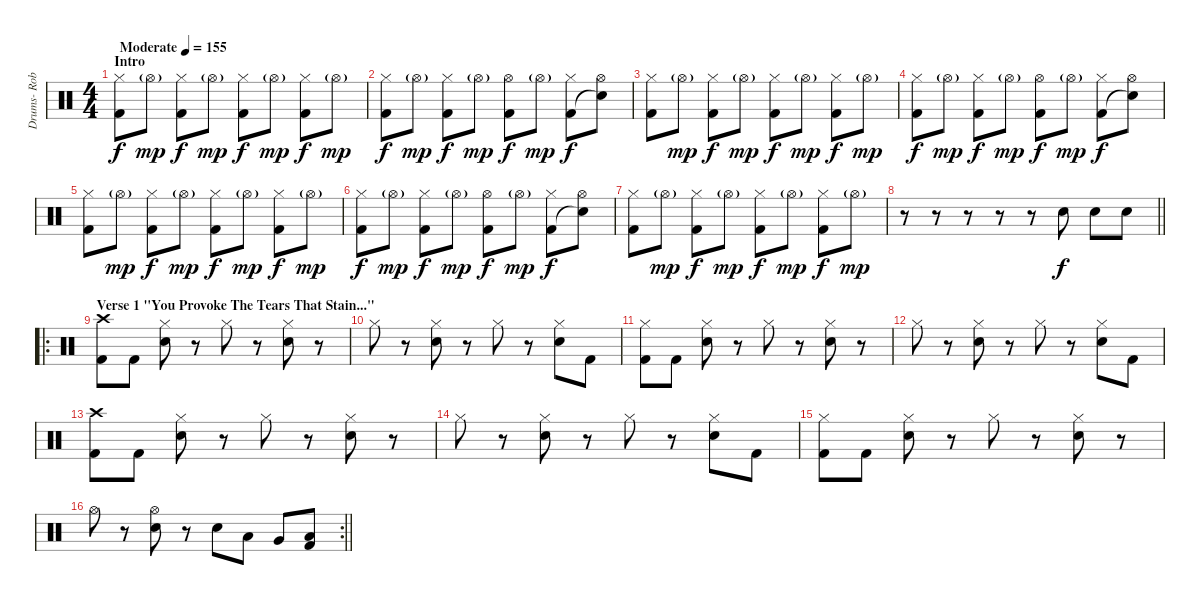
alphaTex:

\track ("Drums- Rob Rolfe" "Drums- Rob") {instrument percussion}
\staff {score}
\articulation defaults
\ts (4 4)
\section ("" "Intro")
\tempo (155 "Moderate")
\clef neutral
\ks c
("Hi-Hat (closed)" "Kick (hit) 2").8{dy f} "Hi-Hat (open)"{g}.8{dy mp} ("Hi-Hat (closed)" "Kick (hit) 2").8{dy f} "Hi-Hat (open)"{g}.8{dy mp} ("Hi-Hat (closed)" "Kick (hit) 2").8{dy f} "Hi-Hat (open)"{g}.8{dy mp} ("Hi-Hat (closed)" "Kick (hit) 2").8{dy f} "Hi-Hat (open)"{g}.8{dy mp} |
("Hi-Hat (closed)" "Kick (hit) 2").8{dy f} "Hi-Hat (open)"{g}.8{dy mp} ("Hi-Hat (closed)" "Kick (hit) 2").8{dy f} "Hi-Hat (open)"{g}.8{dy mp} ("Hi-Hat (open)" "Kick (hit) 2").8{dy f} "Hi-Hat (open)"{g}.8{dy mp} ("Hi-Hat (closed)" "Kick (hit) 2").8{dy f} ("Hi-Hat (open)" "Snare (hit)"{t}).8 |
("Hi-Hat (closed)" "Kick (hit) 2").8 "Hi-Hat (open)"{g}.8{dy mp} ("Hi-Hat (closed)" "Kick (hit) 2").8{dy f} "Hi-Hat (open)"{g}.8{dy mp} ("Hi-Hat (closed)" "Kick (hit) 2").8{dy f} "Hi-Hat (open)"{g}.8{dy mp} ("Hi-Hat (closed)" "Kick (hit) 2").8{dy f} "Hi-Hat (open)"{g}.8{dy mp} |
("Hi-Hat (closed)" "Kick (hit) 2").8{dy f} "Hi-Hat (open)"{g}.8{dy mp} ("Hi-Hat (closed)" "Kick (hit) 2").8{dy f} "Hi-Hat (open)"{g}.8{dy mp} ("Hi-Hat (open)" "Kick (hit) 2").8{dy f} "Hi-Hat (open)"{g}.8{dy mp} ("Hi-Hat (closed)" "Kick (hit) 2").8{dy f} ("Hi-Hat (open)" "Snare (hit)"{t}).8 |
("Hi-Hat (closed)" "Kick (hit) 2").8 "Hi-Hat (open)"{g}.8{dy mp} ("Hi-Hat (closed)" "Kick (hit) 2").8{dy f} "Hi-Hat (open)"{g}.8{dy mp} ("Hi-Hat (closed)" "Kick (hit) 2").8{dy f} "Hi-Hat (open)"{g}.8{dy mp} ("Hi-Hat (closed)" "Kick (hit) 2").8{dy f} "Hi-Hat (open)"{g}.8{dy mp} |
("Hi-Hat (closed)" "Kick (hit) 2").8{dy f} "Hi-Hat (open)"{g}.8{dy mp} ("Hi-Hat (closed)" "Kick (hit) 2").8{dy f} "Hi-Hat (open)"{g}.8{dy mp} ("Hi-Hat (open)" "Kick (hit) 2").8{dy f} "Hi-Hat (open)"{g}.8{dy mp} ("Hi-Hat (closed)" "Kick (hit) 2").8{dy f} ("Hi-Hat (open)" "Snare (hit)"{t}).8 |
("Hi-Hat (closed)" "Kick (hit) 2").8 "Hi-Hat (open)"{g}.8{dy mp} ("Hi-Hat (closed)" "Kick (hit) 2").8{dy f} "Hi-Hat (open)"{g}.8{dy mp} ("Hi-Hat (closed)" "Kick (hit) 2").8{dy f} "Hi-Hat (open)"{g}.8{dy mp} ("Hi-Hat (closed)" "Kick (hit) 2").8{dy f} "Hi-Hat (open)"{g}.8{dy mp} |
\barLineRight lightlight
r.8 r.8 r.8 r.8 r.8 "Snare (hit) 2".8{dy f} "Snare (hit) 2".8 "Snare (hit) 2".8 |
\ro
\section ("" "Verse 1 \"You Provoke The Tears That Stain...\"")
("Crash high (hit)" "Kick (hit) 2").8 "Kick (hit) 2".8 ("Hi-Hat (closed)" "Snare (hit) 2").8 r.8 "Hi-Hat (closed)".8 r.8 ("Hi-Hat (closed)" "Snare (hit) 2").8 r.8 |
"Hi-Hat (closed)".8 r.8 ("Hi-Hat (closed)" "Snare (hit) 2").8 r.8 "Hi-Hat (closed)".8 r.8 ("Hi-Hat (closed)" "Snare (hit) 2").8 "Kick (hit) 2".8 |
("Hi-Hat (closed)" "Kick (hit) 2").8 "Kick (hit) 2".8 ("Hi-Hat (closed)" "Snare (hit) 2").8 r.8 "Hi-Hat (closed)".8 r.8 ("Hi-Hat (closed)" "Snare (hit) 2").8 r.8 |
"Hi-Hat (closed)".8 r.8 ("Hi-Hat (closed)" "Snare (hit) 2").8 r.8 "Hi-Hat (closed)".8 r.8 ("Hi-Hat (closed)" "Snare (hit) 2").8 "Kick (hit) 2".8 |
("Crash high (hit)" "Kick (hit) 2").8 "Kick (hit) 2".8 ("Hi-Hat (closed)" "Snare (hit) 2").8 r.8 "Hi-Hat (closed)".8 r.8 ("Hi-Hat (closed)" "Snare (hit) 2").8 r.8 |
"Hi-Hat (closed)".8 r.8 ("Hi-Hat (closed)" "Snare (hit) 2").8 r.8 "Hi-Hat (closed)".8 r.8 ("Hi-Hat (closed)" "Snare (hit) 2").8 "Kick (hit) 2".8 |
("Hi-Hat (closed)" "Kick (hit) 2").8 "Kick (hit) 2".8 ("Hi-Hat (closed)" "Snare (hit) 2").8 r.8 "Hi-Hat (closed)".8 r.8 ("Hi-Hat (closed)" "Snare (hit) 2").8 r.8 |
\rc 2
\barLineRight lightlight "Hi-Hat (open)".8
r.8 ("Hi-Hat (open)" "Snare (hit) 2").8 r.8 "Snare (hit) 2".8 "Low Tom (hit)".8 "Very Low Tom (hit)".8 ("Low Floor Tom (hit)" "Kick (hit) 2").8
